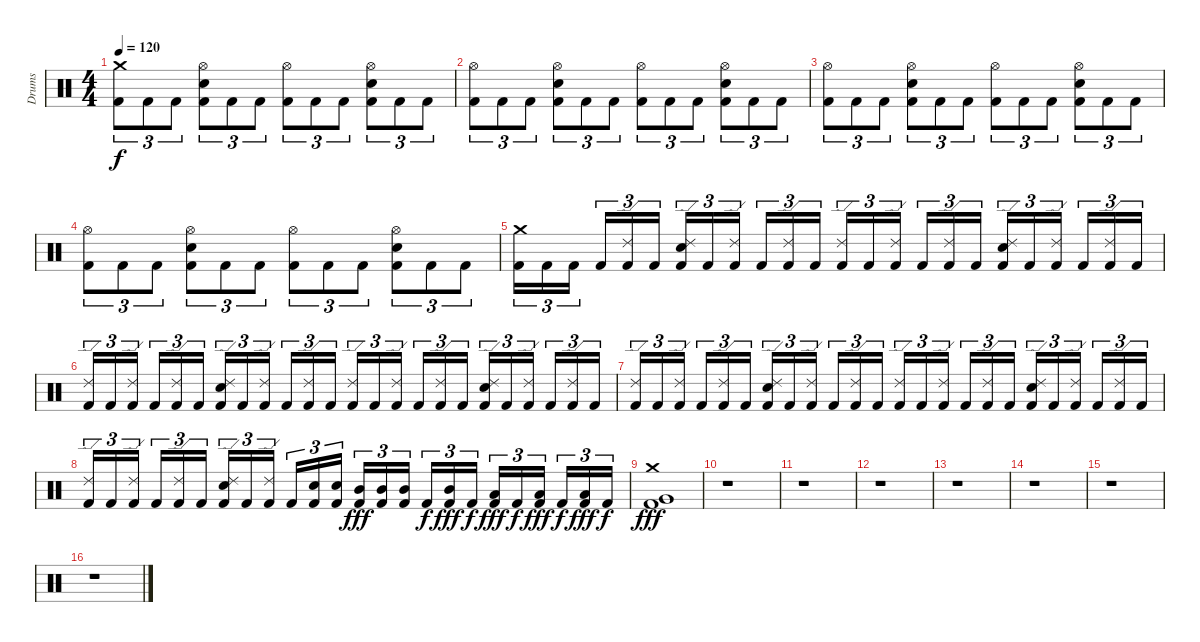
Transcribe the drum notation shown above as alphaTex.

\track ("Drums" "Drums") {instrument percussion}
\staff {score}
\articulation defaults
\ts (4 4)
\tempo 120
\clef neutral
\ks c
("Kick (hit) 2" "Crash medium (hit)").8{tu (3 2) dy f} "Kick (hit) 2".8{tu (3 2)} "Kick (hit) 2".8{tu (3 2)} ("Kick (hit) 2" "Electric Snare (hit)" "Hi-Hat (open)").8{tu (3 2)} "Kick (hit) 2".8{tu (3 2)} "Kick (hit) 2".8{tu (3 2)} ("Kick (hit) 2" "Hi-Hat (open)").8{tu (3 2)} "Kick (hit) 2".8{tu (3 2)} "Kick (hit) 2".8{tu (3 2)} ("Kick (hit) 2" "Electric Snare (hit)" "Hi-Hat (open)").8{tu (3 2)} "Kick (hit) 2".8{tu (3 2)} "Kick (hit) 2".8{tu (3 2)} |
("Kick (hit) 2" "Hi-Hat (open)").8{tu (3 2)} "Kick (hit) 2".8{tu (3 2)} "Kick (hit) 2".8{tu (3 2)} ("Kick (hit) 2" "Electric Snare (hit)" "Hi-Hat (open)").8{tu (3 2)} "Kick (hit) 2".8{tu (3 2)} "Kick (hit) 2".8{tu (3 2)} ("Kick (hit) 2" "Hi-Hat (open)").8{tu (3 2)} "Kick (hit) 2".8{tu (3 2)} "Kick (hit) 2".8{tu (3 2)} ("Kick (hit) 2" "Electric Snare (hit)" "Hi-Hat (open)").8{tu (3 2)} "Kick (hit) 2".8{tu (3 2)} "Kick (hit) 2".8{tu (3 2)} |
("Kick (hit) 2" "Hi-Hat (open)").8{tu (3 2)} "Kick (hit) 2".8{tu (3 2)} "Kick (hit) 2".8{tu (3 2)} ("Kick (hit) 2" "Electric Snare (hit)" "Hi-Hat (open)").8{tu (3 2)} "Kick (hit) 2".8{tu (3 2)} "Kick (hit) 2".8{tu (3 2)} ("Kick (hit) 2" "Hi-Hat (open)").8{tu (3 2)} "Kick (hit) 2".8{tu (3 2)} "Kick (hit) 2".8{tu (3 2)} ("Kick (hit) 2" "Electric Snare (hit)" "Hi-Hat (open)").8{tu (3 2)} "Kick (hit) 2".8{tu (3 2)} "Kick (hit) 2".8{tu (3 2)} |
("Kick (hit) 2" "Hi-Hat (open)").8{tu (3 2)} "Kick (hit) 2".8{tu (3 2)} "Kick (hit) 2".8{tu (3 2)} ("Kick (hit) 2" "Electric Snare (hit)" "Hi-Hat (open)").8{tu (3 2)} "Kick (hit) 2".8{tu (3 2)} "Kick (hit) 2".8{tu (3 2)} ("Kick (hit) 2" "Hi-Hat (open)").8{tu (3 2)} "Kick (hit) 2".8{tu (3 2)} "Kick (hit) 2".8{tu (3 2)} ("Kick (hit) 2" "Electric Snare (hit)" "Hi-Hat (open)").8{tu (3 2)} "Kick (hit) 2".8{tu (3 2)} "Kick (hit) 2".8{tu (3 2)} |
("Kick (hit) 2" "Crash medium (hit)").16{tu (3 2)} "Kick (hit) 2".16{tu (3 2)} "Kick (hit) 2".16{tu (3 2)} "Kick (hit) 2".16{tu (3 2)} ("Kick (hit) 2" "Ride (edge) 2").16{tu (3 2)} "Kick (hit) 2".16{tu (3 2)} ("Kick (hit) 2" "Electric Snare (hit)" "Ride (edge) 2").16{tu (3 2)} "Kick (hit) 2".16{tu (3 2)} ("Kick (hit) 2" "Ride (edge) 2").16{tu (3 2)} "Kick (hit) 2".16{tu (3 2)} ("Kick (hit) 2" "Ride (edge) 2").16{tu (3 2)} "Kick (hit) 2".16{tu (3 2)} ("Kick (hit) 2" "Ride (edge) 2").16{tu (3 2)} "Kick (hit) 2".16{tu (3 2)} ("Kick (hit) 2" "Ride (edge) 2").16{tu (3 2)} "Kick (hit) 2".16{tu (3 2)} ("Kick (hit) 2" "Ride (edge) 2").16{tu (3 2)} "Kick (hit) 2".16{tu (3 2)} ("Kick (hit) 2" "Electric Snare (hit)" "Ride (edge) 2").16{tu (3 2)} "Kick (hit) 2".16{tu (3 2)} ("Kick (hit) 2" "Ride (edge) 2").16{tu (3 2)} "Kick (hit) 2".16{tu (3 2)} ("Kick (hit) 2" "Ride (edge) 2").16{tu (3 2)} "Kick (hit) 2".16{tu (3 2)} |
("Kick (hit) 2" "Ride (edge) 2").16{tu (3 2)} "Kick (hit) 2".16{tu (3 2)} ("Kick (hit) 2" "Ride (edge) 2").16{tu (3 2)} "Kick (hit) 2".16{tu (3 2)} ("Kick (hit) 2" "Ride (edge) 2").16{tu (3 2)} "Kick (hit) 2".16{tu (3 2)} ("Kick (hit) 2" "Electric Snare (hit)" "Ride (edge) 2").16{tu (3 2)} "Kick (hit) 2".16{tu (3 2)} ("Kick (hit) 2" "Ride (edge) 2").16{tu (3 2)} "Kick (hit) 2".16{tu (3 2)} ("Kick (hit) 2" "Ride (edge) 2").16{tu (3 2)} "Kick (hit) 2".16{tu (3 2)} ("Kick (hit) 2" "Ride (edge) 2").16{tu (3 2)} "Kick (hit) 2".16{tu (3 2)} ("Kick (hit) 2" "Ride (edge) 2").16{tu (3 2)} "Kick (hit) 2".16{tu (3 2)} ("Kick (hit) 2" "Ride (edge) 2").16{tu (3 2)} "Kick (hit) 2".16{tu (3 2)} ("Kick (hit) 2" "Electric Snare (hit)" "Ride (edge) 2").16{tu (3 2)} "Kick (hit) 2".16{tu (3 2)} ("Kick (hit) 2" "Ride (edge) 2").16{tu (3 2)} "Kick (hit) 2".16{tu (3 2)} ("Kick (hit) 2" "Ride (edge) 2").16{tu (3 2)} "Kick (hit) 2".16{tu (3 2)} |
("Kick (hit) 2" "Ride (edge) 2").16{tu (3 2)} "Kick (hit) 2".16{tu (3 2)} ("Kick (hit) 2" "Ride (edge) 2").16{tu (3 2)} "Kick (hit) 2".16{tu (3 2)} ("Kick (hit) 2" "Ride (edge) 2").16{tu (3 2)} "Kick (hit) 2".16{tu (3 2)} ("Kick (hit) 2" "Electric Snare (hit)" "Ride (edge) 2").16{tu (3 2)} "Kick (hit) 2".16{tu (3 2)} ("Kick (hit) 2" "Ride (edge) 2").16{tu (3 2)} "Kick (hit) 2".16{tu (3 2)} ("Kick (hit) 2" "Ride (edge) 2").16{tu (3 2)} "Kick (hit) 2".16{tu (3 2)} ("Kick (hit) 2" "Ride (edge) 2").16{tu (3 2)} "Kick (hit) 2".16{tu (3 2)} ("Kick (hit) 2" "Ride (edge) 2").16{tu (3 2)} "Kick (hit) 2".16{tu (3 2)} ("Kick (hit) 2" "Ride (edge) 2").16{tu (3 2)} "Kick (hit) 2".16{tu (3 2)} ("Kick (hit) 2" "Electric Snare (hit)" "Ride (edge) 2").16{tu (3 2)} "Kick (hit) 2".16{tu (3 2)} ("Kick (hit) 2" "Ride (edge) 2").16{tu (3 2)} "Kick (hit) 2".16{tu (3 2)} ("Kick (hit) 2" "Ride (edge) 2").16{tu (3 2)} "Kick (hit) 2".16{tu (3 2)} |
("Kick (hit) 2" "Ride (edge) 2").16{tu (3 2)} "Kick (hit) 2".16{tu (3 2)} ("Kick (hit) 2" "Ride (edge) 2").16{tu (3 2)} "Kick (hit) 2".16{tu (3 2)} ("Kick (hit) 2" "Ride (edge) 2").16{tu (3 2)} "Kick (hit) 2".16{tu (3 2)} ("Kick (hit) 2" "Electric Snare (hit)" "Ride (edge) 2").16{tu (3 2)} "Kick (hit) 2".16{tu (3 2)} ("Kick (hit) 2" "Ride (edge) 2").16{tu (3 2)} "Kick (hit) 2".16{tu (3 2)} ("Kick (hit) 2" "Electric Snare (hit)").16{tu (3 2)} ("Kick (hit) 2" "Electric Snare (hit)").16{tu (3 2)} ("Kick (hit) 2" "Mid Tom (hit)").16{tu (3 2) dy fff} ("Kick (hit) 2" "Mid Tom (hit)").16{tu (3 2)} ("Kick (hit) 2" "Mid Tom (hit)").16{tu (3 2)} "Kick (hit) 2".16{tu (3 2) dy f} ("Kick (hit) 2" "Mid Tom (hit)").16{tu (3 2) dy fff} "Kick (hit) 2".16{tu (3 2) dy f} ("Kick (hit) 2" "Low Tom (hit)").16{tu (3 2) dy fff} "Kick (hit) 2".16{tu (3 2) dy f} ("Kick (hit) 2" "Low Tom (hit)").16{tu (3 2) dy fff} "Kick (hit) 2".16{tu (3 2) dy f} ("Kick (hit) 2" "Low Tom (hit)").16{tu (3 2) dy fff} "Kick (hit) 2".16{tu (3 2) dy f} |
("Kick (hit) 2" "Very Low Tom (hit)" "Crash medium (hit)").1{dy fff} |
r.1 |
r.1 |
r.1 |
r.1 |
r.1 |
r.1 |
r.1
